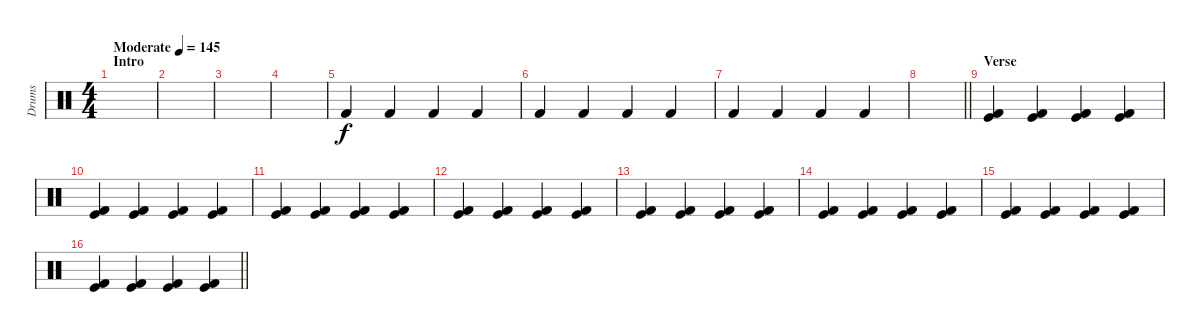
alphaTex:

\track ("Drums" "Drums") {instrument percussion}
\staff {score}
\articulation defaults
\ts (4 4)
\section ("" "Intro")
\tempo (145 "Moderate")
\clef neutral
\ks c
|
|
|
|
"Kick (hit) 2".4 "Kick (hit) 2".4 "Kick (hit) 2".4 "Kick (hit) 2".4 |
"Kick (hit) 2".4 "Kick (hit) 2".4 "Kick (hit) 2".4 "Kick (hit) 2".4 |
"Kick (hit) 2".4 "Kick (hit) 2".4 "Kick (hit) 2".4 "Kick (hit) 2".4 |
\barLineRight lightlight
|
\section ("" "Verse")
("Kick (hit)" "Kick (hit) 2").4 ("Kick (hit)" "Kick (hit) 2").4 ("Kick (hit)" "Kick (hit) 2").4 ("Kick (hit)" "Kick (hit) 2").4 |
("Kick (hit)" "Kick (hit) 2").4 ("Kick (hit)" "Kick (hit) 2").4 ("Kick (hit)" "Kick (hit) 2").4 ("Kick (hit)" "Kick (hit) 2").4 |
("Kick (hit)" "Kick (hit) 2").4 ("Kick (hit)" "Kick (hit) 2").4 ("Kick (hit)" "Kick (hit) 2").4 ("Kick (hit)" "Kick (hit) 2").4 |
("Kick (hit)" "Kick (hit) 2").4 ("Kick (hit)" "Kick (hit) 2").4 ("Kick (hit)" "Kick (hit) 2").4 ("Kick (hit)" "Kick (hit) 2").4 |
("Kick (hit)" "Kick (hit) 2").4 ("Kick (hit)" "Kick (hit) 2").4 ("Kick (hit)" "Kick (hit) 2").4 ("Kick (hit)" "Kick (hit) 2").4 |
("Kick (hit)" "Kick (hit) 2").4 ("Kick (hit)" "Kick (hit) 2").4 ("Kick (hit)" "Kick (hit) 2").4 ("Kick (hit)" "Kick (hit) 2").4 |
("Kick (hit)" "Kick (hit) 2").4 ("Kick (hit)" "Kick (hit) 2").4 ("Kick (hit)" "Kick (hit) 2").4 ("Kick (hit)" "Kick (hit) 2").4 |
\barLineRight lightlight
("Kick (hit)" "Kick (hit) 2").4 ("Kick (hit)" "Kick (hit) 2").4 ("Kick (hit)" "Kick (hit) 2").4 ("Kick (hit)" "Kick (hit) 2").4
